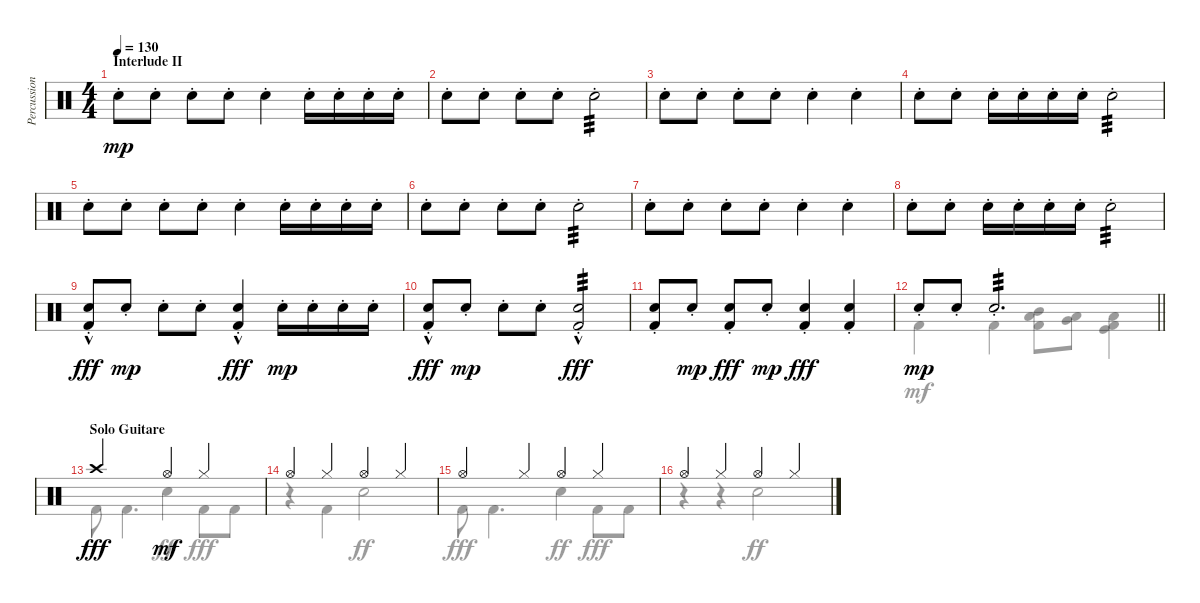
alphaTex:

\track ("Percussions" "Percussion") {instrument percussion}
\staff {score}
\articulation defaults
\voice
\ts (4 4)
\section ("" "Interlude II")
\tempo 130
\clef neutral
\ks c "Electric Snare (hit)"{st}.8{dy mp} "Electric Snare (hit)"{st}.8 "Electric Snare (hit)"{st}.8 "Electric Snare (hit)"{st}.8 "Electric Snare (hit)"{st}.4 "Electric Snare (hit)"{st}.16 "Electric Snare (hit)"{st}.16 "Electric Snare (hit)"{st}.16 "Electric Snare (hit)"{st}.16
|
"Electric Snare (hit)"{st}.8 "Electric Snare (hit)"{st}.8 "Electric Snare (hit)"{st}.8 "Electric Snare (hit)"{st}.8 "Electric Snare (hit)"{st}.2{tp 3} |
"Electric Snare (hit)"{st}.8 "Electric Snare (hit)"{st}.8 "Electric Snare (hit)"{st}.8 "Electric Snare (hit)"{st}.8 "Electric Snare (hit)"{st}.4 "Electric Snare (hit)"{st}.4 |
"Electric Snare (hit)"{st}.8 "Electric Snare (hit)"{st}.8 "Electric Snare (hit)"{st}.16 "Electric Snare (hit)"{st}.16 "Electric Snare (hit)"{st}.16 "Electric Snare (hit)"{st}.16 "Electric Snare (hit)"{st}.2{tp 3} |
"Electric Snare (hit)"{st}.8 "Electric Snare (hit)"{st}.8 "Electric Snare (hit)"{st}.8 "Electric Snare (hit)"{st}.8 "Electric Snare (hit)"{st}.4 "Electric Snare (hit)"{st}.16 "Electric Snare (hit)"{st}.16 "Electric Snare (hit)"{st}.16 "Electric Snare (hit)"{st}.16 |
"Electric Snare (hit)"{st}.8 "Electric Snare (hit)"{st}.8 "Electric Snare (hit)"{st}.8 "Electric Snare (hit)"{st}.8 "Electric Snare (hit)"{st}.2{tp 3} |
"Electric Snare (hit)"{st}.8 "Electric Snare (hit)"{st}.8 "Electric Snare (hit)"{st}.8 "Electric Snare (hit)"{st}.8 "Electric Snare (hit)"{st}.4 "Electric Snare (hit)"{st}.4 |
"Electric Snare (hit)"{st}.8 "Electric Snare (hit)"{st}.8 "Electric Snare (hit)"{st}.16 "Electric Snare (hit)"{st}.16 "Electric Snare (hit)"{st}.16 "Electric Snare (hit)"{st}.16 "Electric Snare (hit)"{st}.2{tp 3} |
("Electric Snare (hit)"{st} "Kick (hit) 2"{hac}).8{dy fff} "Electric Snare (hit)"{st}.8{dy mp} "Electric Snare (hit)"{st}.8 "Electric Snare (hit)"{st}.8 ("Electric Snare (hit)"{st} "Kick (hit) 2"{hac}).4{dy fff} "Electric Snare (hit)"{st}.16{dy mp} "Electric Snare (hit)"{st}.16 "Electric Snare (hit)"{st}.16 "Electric Snare (hit)"{st}.16 |
("Electric Snare (hit)"{st} "Kick (hit) 2"{hac}).8{dy fff} "Electric Snare (hit)"{st}.8{dy mp} "Electric Snare (hit)"{st}.8 "Electric Snare (hit)"{st}.8 ("Electric Snare (hit)"{st} "Kick (hit) 2"{hac}).2{tp 3 dy fff} |
("Electric Snare (hit)"{st} "Kick (hit) 2").8 "Electric Snare (hit)"{st}.8{dy mp} ("Electric Snare (hit)"{st} "Kick (hit) 2").8{dy fff} "Electric Snare (hit)"{st}.8{dy mp} ("Electric Snare (hit)"{st} "Kick (hit) 2").4{dy fff} ("Electric Snare (hit)"{st} "Kick (hit) 2").4 |
\barLineRight lightlight "Electric Snare (hit)"{st}.8{dy mp} "Electric Snare (hit)"{st}.8 "Electric Snare (hit)"{st}.2{d tp 3}
|
\section ("" "Solo Guitare")
"Crash high (hit)".2{dy fff} "Hi-Hat (open)".4{dy mf} "Hi-Hat (closed)".4 |
"Hi-Hat (open)".4 "Hi-Hat (closed)".4 "Hi-Hat (open)".4 "Hi-Hat (closed)".4 |
"Hi-Hat (open)".4 "Hi-Hat (closed)".4 "Hi-Hat (open)".4 "Hi-Hat (closed)".4 |
"Hi-Hat (open)".4 "Hi-Hat (closed)".4 "Hi-Hat (open)".4 "Hi-Hat (closed)".4
\voice
\clef neutral
\ottava regular
\simile none
\ks c
|
|
|
|
|
|
|
|
|
|
|
\barLineRight lightlight "Kick (hit) 2".4 "Kick (hit) 2".4
("Mid Tom (hit)" "Low Tom (hit)" "Kick (hit) 2").8 ("Low Tom (hit)" "Very Low Tom (hit)").8 ("Low Tom (hit)" "Kick (hit)" "Kick (hit) 2").4 |
"Kick (hit) 2".8 "Kick (hit) 2".4{d} "Electric Snare (hit)".4{dy ff} "Kick (hit) 2".8{dy fff} "Kick (hit) 2".8 |
r.4 "Kick (hit) 2".4 "Electric Snare (hit)".2{dy ff} |
"Kick (hit) 2".8{dy fff} "Kick (hit) 2".4{d} "Electric Snare (hit)".4{dy ff} "Kick (hit) 2".8{dy fff} "Kick (hit) 2".8 |
r.4 r.4 "Electric Snare (hit)".2{dy ff}
